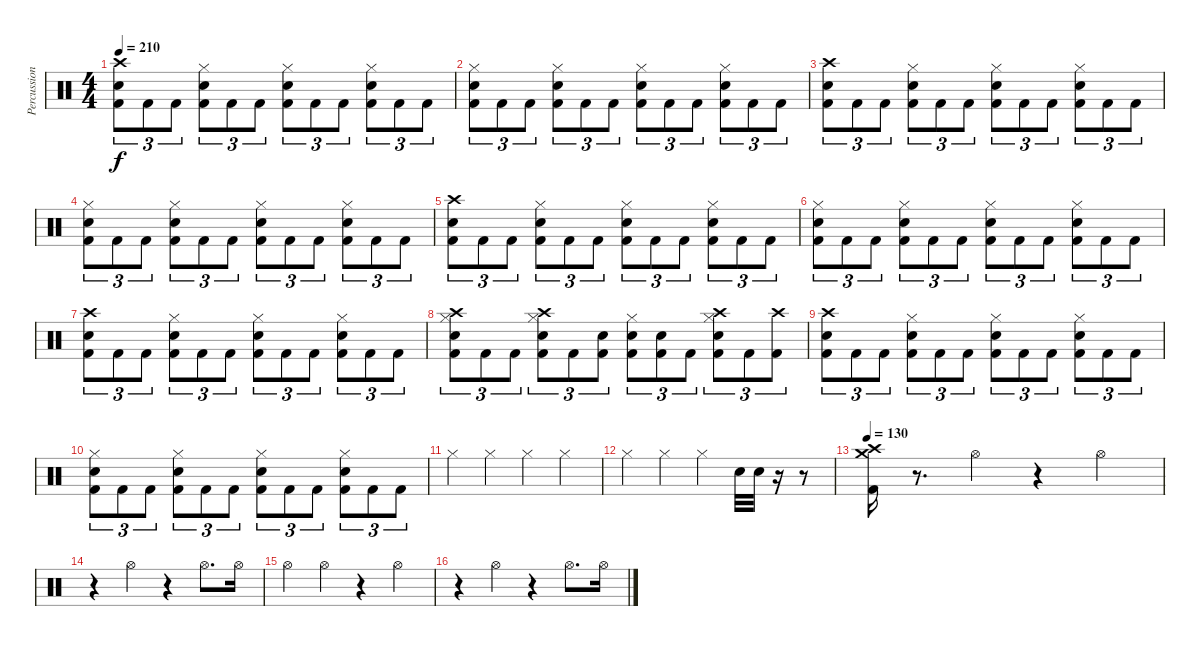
\track ("Percussions" "Percussion") {instrument percussion}
\staff {score}
\articulation defaults
\ts (4 4)
\tempo 210
\clef neutral
\ks c
("Crash high (hit)" "Electric Snare (hit)" "Kick (hit) 2").8{tu (3 2) dy f} "Kick (hit) 2".8{tu (3 2)} "Kick (hit) 2".8{tu (3 2)} ("Hi-Hat (closed)" "Electric Snare (hit)" "Kick (hit) 2").8{tu (3 2)} "Kick (hit) 2".8{tu (3 2)} "Kick (hit) 2".8{tu (3 2)} ("Hi-Hat (closed)" "Electric Snare (hit)" "Kick (hit) 2").8{tu (3 2)} "Kick (hit) 2".8{tu (3 2)} "Kick (hit) 2".8{tu (3 2)} ("Hi-Hat (closed)" "Electric Snare (hit)" "Kick (hit) 2").8{tu (3 2)} "Kick (hit) 2".8{tu (3 2)} "Kick (hit) 2".8{tu (3 2)} |
("Hi-Hat (closed)" "Electric Snare (hit)" "Kick (hit) 2").8{tu (3 2)} "Kick (hit) 2".8{tu (3 2)} "Kick (hit) 2".8{tu (3 2)} ("Hi-Hat (closed)" "Electric Snare (hit)" "Kick (hit) 2").8{tu (3 2)} "Kick (hit) 2".8{tu (3 2)} "Kick (hit) 2".8{tu (3 2)} ("Hi-Hat (closed)" "Electric Snare (hit)" "Kick (hit) 2").8{tu (3 2)} "Kick (hit) 2".8{tu (3 2)} "Kick (hit) 2".8{tu (3 2)} ("Hi-Hat (closed)" "Electric Snare (hit)" "Kick (hit) 2").8{tu (3 2)} "Kick (hit) 2".8{tu (3 2)} "Kick (hit) 2".8{tu (3 2)} |
("Crash high (hit)" "Electric Snare (hit)" "Kick (hit) 2").8{tu (3 2)} "Kick (hit) 2".8{tu (3 2)} "Kick (hit) 2".8{tu (3 2)} ("Hi-Hat (closed)" "Electric Snare (hit)" "Kick (hit) 2").8{tu (3 2)} "Kick (hit) 2".8{tu (3 2)} "Kick (hit) 2".8{tu (3 2)} ("Hi-Hat (closed)" "Electric Snare (hit)" "Kick (hit) 2").8{tu (3 2)} "Kick (hit) 2".8{tu (3 2)} "Kick (hit) 2".8{tu (3 2)} ("Hi-Hat (closed)" "Electric Snare (hit)" "Kick (hit) 2").8{tu (3 2)} "Kick (hit) 2".8{tu (3 2)} "Kick (hit) 2".8{tu (3 2)} |
("Hi-Hat (closed)" "Electric Snare (hit)" "Kick (hit) 2").8{tu (3 2)} "Kick (hit) 2".8{tu (3 2)} "Kick (hit) 2".8{tu (3 2)} ("Hi-Hat (closed)" "Electric Snare (hit)" "Kick (hit) 2").8{tu (3 2)} "Kick (hit) 2".8{tu (3 2)} "Kick (hit) 2".8{tu (3 2)} ("Hi-Hat (closed)" "Electric Snare (hit)" "Kick (hit) 2").8{tu (3 2)} "Kick (hit) 2".8{tu (3 2)} "Kick (hit) 2".8{tu (3 2)} ("Hi-Hat (closed)" "Electric Snare (hit)" "Kick (hit) 2").8{tu (3 2)} "Kick (hit) 2".8{tu (3 2)} "Kick (hit) 2".8{tu (3 2)} |
("Crash high (hit)" "Electric Snare (hit)" "Kick (hit) 2").8{tu (3 2)} "Kick (hit) 2".8{tu (3 2)} "Kick (hit) 2".8{tu (3 2)} ("Hi-Hat (closed)" "Electric Snare (hit)" "Kick (hit) 2").8{tu (3 2)} "Kick (hit) 2".8{tu (3 2)} "Kick (hit) 2".8{tu (3 2)} ("Hi-Hat (closed)" "Electric Snare (hit)" "Kick (hit) 2").8{tu (3 2)} "Kick (hit) 2".8{tu (3 2)} "Kick (hit) 2".8{tu (3 2)} ("Hi-Hat (closed)" "Electric Snare (hit)" "Kick (hit) 2").8{tu (3 2)} "Kick (hit) 2".8{tu (3 2)} "Kick (hit) 2".8{tu (3 2)} |
("Hi-Hat (closed)" "Electric Snare (hit)" "Kick (hit) 2").8{tu (3 2)} "Kick (hit) 2".8{tu (3 2)} "Kick (hit) 2".8{tu (3 2)} ("Hi-Hat (closed)" "Electric Snare (hit)" "Kick (hit) 2").8{tu (3 2)} "Kick (hit) 2".8{tu (3 2)} "Kick (hit) 2".8{tu (3 2)} ("Hi-Hat (closed)" "Electric Snare (hit)" "Kick (hit) 2").8{tu (3 2)} "Kick (hit) 2".8{tu (3 2)} "Kick (hit) 2".8{tu (3 2)} ("Hi-Hat (closed)" "Electric Snare (hit)" "Kick (hit) 2").8{tu (3 2)} "Kick (hit) 2".8{tu (3 2)} "Kick (hit) 2".8{tu (3 2)} |
("Crash high (hit)" "Electric Snare (hit)" "Kick (hit) 2").8{tu (3 2)} "Kick (hit) 2".8{tu (3 2)} "Kick (hit) 2".8{tu (3 2)} ("Hi-Hat (closed)" "Electric Snare (hit)" "Kick (hit) 2").8{tu (3 2)} "Kick (hit) 2".8{tu (3 2)} "Kick (hit) 2".8{tu (3 2)} ("Hi-Hat (closed)" "Electric Snare (hit)" "Kick (hit) 2").8{tu (3 2)} "Kick (hit) 2".8{tu (3 2)} "Kick (hit) 2".8{tu (3 2)} ("Hi-Hat (closed)" "Electric Snare (hit)" "Kick (hit) 2").8{tu (3 2)} "Kick (hit) 2".8{tu (3 2)} "Kick (hit) 2".8{tu (3 2)} |
("Crash high (hit)" "Hi-Hat (closed)" "Electric Snare (hit)" "Kick (hit) 2").8{tu (3 2)} "Kick (hit) 2".8{tu (3 2)} "Kick (hit) 2".8{tu (3 2)} ("Crash high (hit)" "Hi-Hat (closed)" "Electric Snare (hit)" "Kick (hit) 2").8{tu (3 2)} "Kick (hit) 2".8{tu (3 2)} ("Electric Snare (hit)" "Kick (hit) 2").8{tu (3 2)} ("Hi-Hat (closed)" "Electric Snare (hit)" "Kick (hit) 2").8{tu (3 2)} ("Electric Snare (hit)" "Kick (hit) 2").8{tu (3 2)} "Kick (hit) 2".8{tu (3 2)} ("Crash high (hit)" "Hi-Hat (closed)" "Electric Snare (hit)" "Kick (hit) 2").8{tu (3 2)} "Kick (hit) 2".8{tu (3 2)} ("Crash high (hit)" "Kick (hit) 2").8{tu (3 2)} |
("Crash high (hit)" "Electric Snare (hit)" "Kick (hit) 2").8{tu (3 2)} "Kick (hit) 2".8{tu (3 2)} "Kick (hit) 2".8{tu (3 2)} ("Hi-Hat (closed)" "Electric Snare (hit)" "Kick (hit) 2").8{tu (3 2)} "Kick (hit) 2".8{tu (3 2)} "Kick (hit) 2".8{tu (3 2)} ("Hi-Hat (closed)" "Electric Snare (hit)" "Kick (hit) 2").8{tu (3 2)} "Kick (hit) 2".8{tu (3 2)} "Kick (hit) 2".8{tu (3 2)} ("Hi-Hat (closed)" "Electric Snare (hit)" "Kick (hit) 2").8{tu (3 2)} "Kick (hit) 2".8{tu (3 2)} "Kick (hit) 2".8{tu (3 2)} |
("Hi-Hat (closed)" "Electric Snare (hit)" "Kick (hit) 2").8{tu (3 2)} "Kick (hit) 2".8{tu (3 2)} "Kick (hit) 2".8{tu (3 2)} ("Hi-Hat (closed)" "Electric Snare (hit)" "Kick (hit) 2").8{tu (3 2)} "Kick (hit) 2".8{tu (3 2)} "Kick (hit) 2".8{tu (3 2)} ("Hi-Hat (closed)" "Electric Snare (hit)" "Kick (hit) 2").8{tu (3 2)} "Kick (hit) 2".8{tu (3 2)} "Kick (hit) 2".8{tu (3 2)} ("Hi-Hat (closed)" "Electric Snare (hit)" "Kick (hit) 2").8{tu (3 2)} "Kick (hit) 2".8{tu (3 2)} "Kick (hit) 2".8{tu (3 2)} |
"Hi-Hat (closed)".4 "Hi-Hat (closed)".4 "Hi-Hat (closed)".4 "Hi-Hat (closed)".4 |
"Hi-Hat (closed)".4 "Hi-Hat (closed)".4 "Hi-Hat (closed)".4 "Electric Snare (hit)".32 "Electric Snare (hit)".32 r.16 r.8 |
\tempo 130
("Crash high (hit)" "Crash medium (hit)" "Kick (hit) 2").16 r.8{d} "Hi-Hat (open)".4 r.4 "Hi-Hat (open)".4 |
r.4 "Hi-Hat (open)".4 r.4 "Hi-Hat (open)".8{d} "Hi-Hat (open)".16 |
"Hi-Hat (open)".4 "Hi-Hat (open)".4 r.4 "Hi-Hat (open)".4 |
r.4 "Hi-Hat (open)".4 r.4 "Hi-Hat (open)".8{d} "Hi-Hat (open)".16
